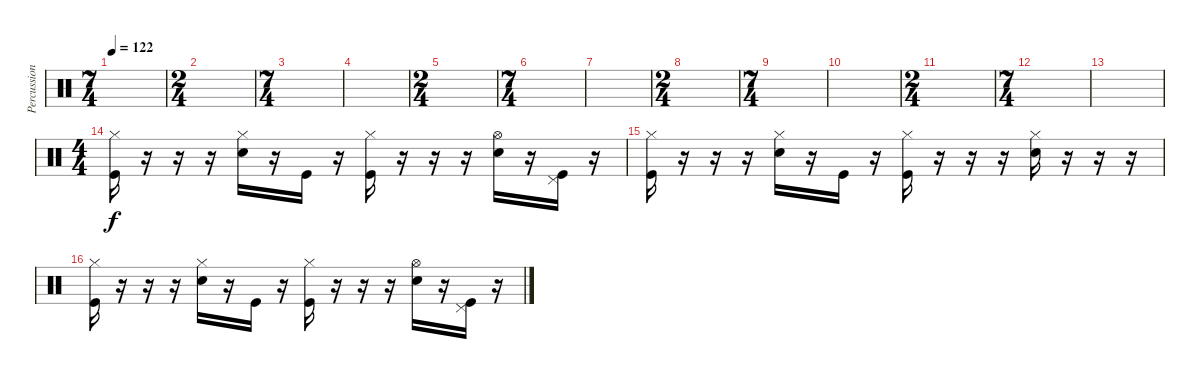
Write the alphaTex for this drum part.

\track ("Percussions" "Percussion") {instrument percussion}
\staff {score}
\articulation defaults
\ts (7 4)
\tempo 122
\clef neutral
\ks c
|
\ts (2 4)
|
\ts (7 4)
|
|
\ts (2 4)
|
\ts (7 4)
|
|
\ts (2 4)
|
\ts (7 4)
|
|
\ts (2 4)
|
\ts (7 4)
|
|
\ts (4 4)
("Hi-Hat (closed)" "Kick (hit)").16 r.16 r.16 r.16 ("Hi-Hat (closed)" "Electric Snare (hit)").16 r.16 "Kick (hit)".16 r.16 ("Hi-Hat (closed)" "Kick (hit)").16 r.16 r.16 r.16 ("Hi-Hat (open)" "Electric Snare (hit)").16 r.16 ("Pedal Hi-Hat (hit)" "Kick (hit)").16 r.16 |
("Hi-Hat (closed)" "Kick (hit)").16 r.16 r.16 r.16 ("Hi-Hat (closed)" "Electric Snare (hit)").16 r.16 "Kick (hit)".16 r.16 ("Hi-Hat (closed)" "Kick (hit)").16 r.16 r.16 r.16 ("Hi-Hat (closed)" "Electric Snare (hit)").16 r.16 r.16 r.16 |
("Hi-Hat (closed)" "Kick (hit)").16 r.16 r.16 r.16 ("Hi-Hat (closed)" "Electric Snare (hit)").16 r.16 "Kick (hit)".16 r.16 ("Hi-Hat (closed)" "Kick (hit)").16 r.16 r.16 r.16 ("Hi-Hat (open)" "Electric Snare (hit)").16 r.16 ("Pedal Hi-Hat (hit)" "Kick (hit)").16 r.16
